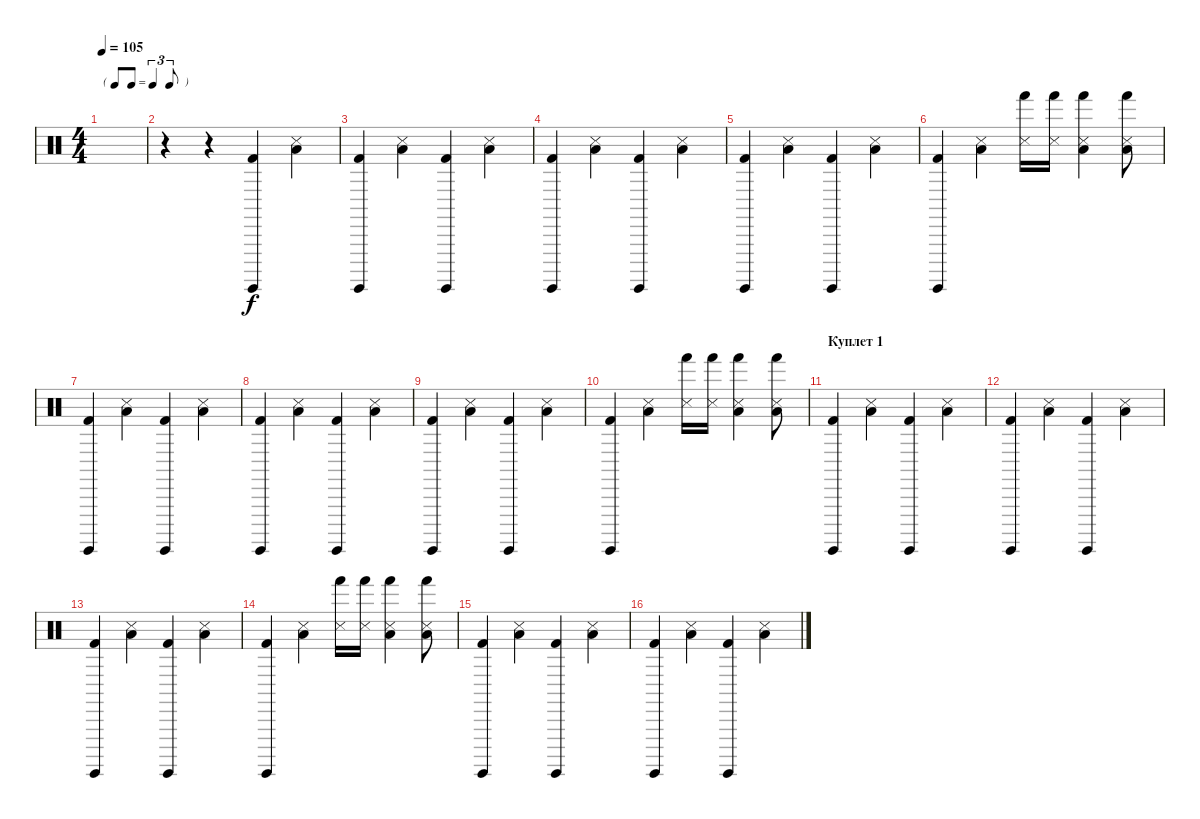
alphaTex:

\track "" {instrument percussion}
\staff {score}
\articulation defaults
\ts (4 4)
\tf triplet8th
\tempo 105
\clef neutral
\ks c
|
r.4 r.4 ("Surdo (hit)" "Kick (hit) 2").4 ("Metronome (hit)" "Low Floor Tom (hit)").4 |
("Surdo (hit)" "Kick (hit) 2").4 ("Metronome (hit)" "Low Floor Tom (hit)").4 ("Surdo (hit)" "Kick (hit) 2").4 ("Metronome (hit)" "Low Floor Tom (hit)").4 |
("Surdo (hit)" "Kick (hit) 2").4 ("Metronome (hit)" "Low Floor Tom (hit)").4 ("Surdo (hit)" "Kick (hit) 2").4 ("Metronome (hit)" "Low Floor Tom (hit)").4 |
("Surdo (hit)" "Kick (hit) 2").4 ("Metronome (hit)" "Low Floor Tom (hit)").4 ("Surdo (hit)" "Kick (hit) 2").4 ("Metronome (hit)" "Low Floor Tom (hit)").4 |
("Surdo (hit)" "Kick (hit) 2").4 ("Metronome (hit)" "Low Floor Tom (hit)").4 ("Metronome (hit)" "Hand (hit)").16 ("Metronome (hit)" "Hand (hit)").16 ("Metronome (hit)" "Low Floor Tom (hit)" "Hand (hit)").4 ("Metronome (hit)" "Low Floor Tom (hit)" "Hand (hit)").8 |
("Surdo (hit)" "Kick (hit) 2").4 ("Metronome (hit)" "Low Floor Tom (hit)").4 ("Surdo (hit)" "Kick (hit) 2").4 ("Metronome (hit)" "Low Floor Tom (hit)").4 |
("Surdo (hit)" "Kick (hit) 2").4 ("Metronome (hit)" "Low Floor Tom (hit)").4 ("Surdo (hit)" "Kick (hit) 2").4 ("Metronome (hit)" "Low Floor Tom (hit)").4 |
("Surdo (hit)" "Kick (hit) 2").4 ("Metronome (hit)" "Low Floor Tom (hit)").4 ("Surdo (hit)" "Kick (hit) 2").4 ("Metronome (hit)" "Low Floor Tom (hit)").4 |
("Surdo (hit)" "Kick (hit) 2").4 ("Metronome (hit)" "Low Floor Tom (hit)").4 ("Metronome (hit)" "Hand (hit)").16 ("Metronome (hit)" "Hand (hit)").16 ("Metronome (hit)" "Low Floor Tom (hit)" "Hand (hit)").4 ("Metronome (hit)" "Low Floor Tom (hit)" "Hand (hit)").8 |
\section ("" "Куплет 1")
("Surdo (hit)" "Kick (hit) 2").4 ("Metronome (hit)" "Low Floor Tom (hit)").4 ("Surdo (hit)" "Kick (hit) 2").4 ("Metronome (hit)" "Low Floor Tom (hit)").4 |
("Surdo (hit)" "Kick (hit) 2").4 ("Metronome (hit)" "Low Floor Tom (hit)").4 ("Surdo (hit)" "Kick (hit) 2").4 ("Metronome (hit)" "Low Floor Tom (hit)").4 |
("Surdo (hit)" "Kick (hit) 2").4 ("Metronome (hit)" "Low Floor Tom (hit)").4 ("Surdo (hit)" "Kick (hit) 2").4 ("Metronome (hit)" "Low Floor Tom (hit)").4 |
("Surdo (hit)" "Kick (hit) 2").4 ("Metronome (hit)" "Low Floor Tom (hit)").4 ("Metronome (hit)" "Hand (hit)").16 ("Metronome (hit)" "Hand (hit)").16 ("Metronome (hit)" "Low Floor Tom (hit)" "Hand (hit)").4 ("Metronome (hit)" "Low Floor Tom (hit)" "Hand (hit)").8 |
("Surdo (hit)" "Kick (hit) 2").4 ("Metronome (hit)" "Low Floor Tom (hit)").4 ("Surdo (hit)" "Kick (hit) 2").4 ("Metronome (hit)" "Low Floor Tom (hit)").4 |
("Surdo (hit)" "Kick (hit) 2").4 ("Metronome (hit)" "Low Floor Tom (hit)").4 ("Surdo (hit)" "Kick (hit) 2").4 ("Metronome (hit)" "Low Floor Tom (hit)").4
